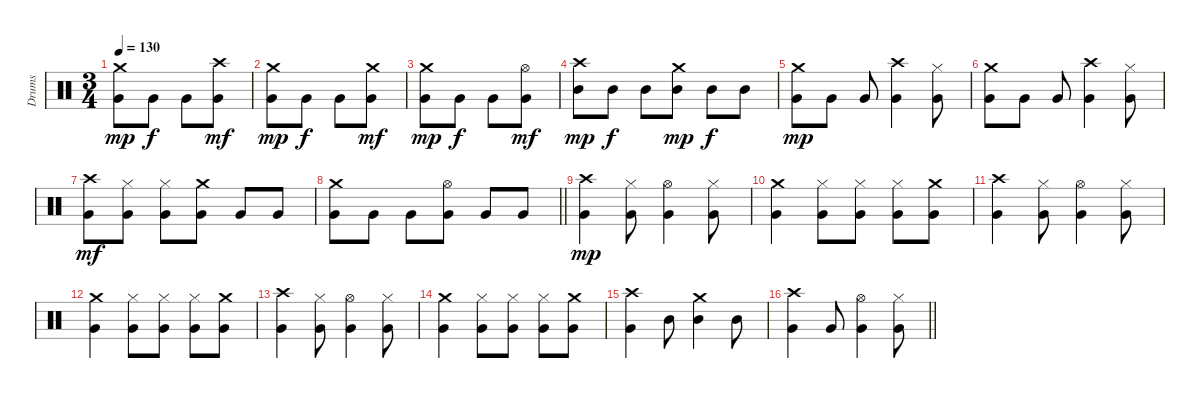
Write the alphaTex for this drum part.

\track ("Drums" "Drums") {instrument percussion}
\staff {score}
\articulation defaults
\ts (3 4)
\tempo 130
\clef neutral
\ks c
("Crash medium (hit)" "Very Low Tom (hit)").8{dy mp} "Very Low Tom (hit)".8{dy f} "Very Low Tom (hit)".8 ("Crash high (hit)" "Very Low Tom (hit)").8{dy mf} |
("Crash medium (hit)" "Very Low Tom (hit)").8{dy mp} "Very Low Tom (hit)".8{dy f} "Very Low Tom (hit)".8 ("Crash medium (hit)" "Very Low Tom (hit)").8{dy mf} |
("Crash medium (hit)" "Very Low Tom (hit)").8{dy mp} "Very Low Tom (hit)".8{dy f} "Very Low Tom (hit)".8 ("Hi-Hat (open)" "Very Low Tom (hit)").8{dy mf} |
("Crash high (hit)" "Mid Tom (hit)").8{dy mp} "Mid Tom (hit)".8{dy f} "Mid Tom (hit)".8 ("Crash medium (hit)" "Mid Tom (hit)").8{dy mp} "Mid Tom (hit)".8{dy f} "Mid Tom (hit)".8 |
("Crash medium (hit)" "Very Low Tom (hit)").8{dy mp} "Very Low Tom (hit)".8 "Very Low Tom (hit)".8 ("Crash high (hit)" "Very Low Tom (hit)").4 ("Hi-Hat (closed)" "Very Low Tom (hit)").8 |
("Crash medium (hit)" "Very Low Tom (hit)").8 "Very Low Tom (hit)".8 "Very Low Tom (hit)".8 ("Crash high (hit)" "Very Low Tom (hit)").4 ("Hi-Hat (closed)" "Very Low Tom (hit)").8 |
("Crash high (hit)" "Very Low Tom (hit)").8{dy mf} ("Hi-Hat (closed)" "Very Low Tom (hit)").8 ("Hi-Hat (closed)" "Very Low Tom (hit)").8 ("Crash medium (hit)" "Very Low Tom (hit)").8 "Very Low Tom (hit)".8 "Very Low Tom (hit)".8 |
\barLineRight lightlight
("Crash medium (hit)" "Very Low Tom (hit)").8 "Very Low Tom (hit)".8 "Very Low Tom (hit)".8 ("Hi-Hat (open)" "Very Low Tom (hit)").8 "Very Low Tom (hit)".8 "Very Low Tom (hit)".8 |
\section ("" "")
("Crash high (hit)" "Very Low Tom (hit)").4{dy mp} ("Hi-Hat (closed)" "Very Low Tom (hit)").8 ("Hi-Hat (open)" "Very Low Tom (hit)").4 ("Hi-Hat (closed)" "Very Low Tom (hit)").8 |
("Crash medium (hit)" "Very Low Tom (hit)").4 ("Hi-Hat (closed)" "Very Low Tom (hit)").8 ("Hi-Hat (closed)" "Very Low Tom (hit)").8 ("Hi-Hat (closed)" "Very Low Tom (hit)").8 ("Crash medium (hit)" "Very Low Tom (hit)").8 |
("Crash high (hit)" "Very Low Tom (hit)").4 ("Hi-Hat (closed)" "Very Low Tom (hit)").8 ("Hi-Hat (open)" "Very Low Tom (hit)").4 ("Hi-Hat (closed)" "Very Low Tom (hit)").8 |
("Crash medium (hit)" "Very Low Tom (hit)").4 ("Hi-Hat (closed)" "Very Low Tom (hit)").8 ("Hi-Hat (closed)" "Very Low Tom (hit)").8 ("Hi-Hat (closed)" "Very Low Tom (hit)").8 ("Crash medium (hit)" "Very Low Tom (hit)").8 |
("Crash high (hit)" "Very Low Tom (hit)").4 ("Hi-Hat (closed)" "Very Low Tom (hit)").8 ("Hi-Hat (open)" "Very Low Tom (hit)").4 ("Hi-Hat (closed)" "Very Low Tom (hit)").8 |
("Crash medium (hit)" "Very Low Tom (hit)").4 ("Hi-Hat (closed)" "Very Low Tom (hit)").8 ("Hi-Hat (closed)" "Very Low Tom (hit)").8 ("Hi-Hat (closed)" "Very Low Tom (hit)").8 ("Crash medium (hit)" "Very Low Tom (hit)").8 |
("Crash high (hit)" "Very Low Tom (hit)").4 "Mid Tom (hit)".8 ("Crash medium (hit)" "Mid Tom (hit)").4 "Mid Tom (hit)".8 |
\barLineRight lightlight
("Crash high (hit)" "Very Low Tom (hit)").4 "Very Low Tom (hit)".8 ("Hi-Hat (open)" "Very Low Tom (hit)").4 ("Hi-Hat (closed)" "Very Low Tom (hit)").8
